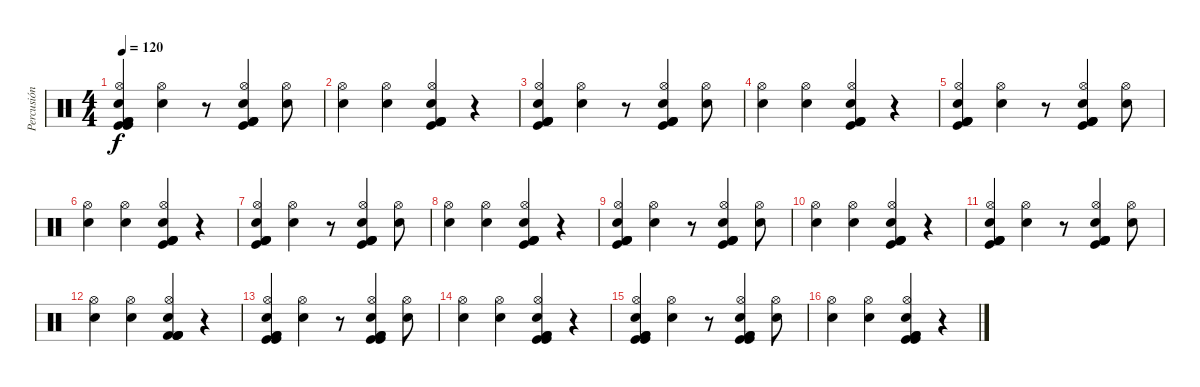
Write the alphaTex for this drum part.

\track ("Percusión" "Percusión") {instrument percussion}
\staff {score}
\articulation defaults
\ts (4 4)
\tempo 120
\clef neutral
\ks c
("Kick (hit) 2" "Hi-Hat (open)" "Snare (hit) 2" "Kick (hit)" "Kick (hit)" "Kick (hit) 2").4{dy f} ("Hi-Hat (open)" "Snare (hit) 2").4 r.8 ("Kick (hit) 2" "Hi-Hat (open)" "Snare (hit) 2" "Kick (hit) 2" "Kick (hit) 2" "Kick (hit)").4 ("Hi-Hat (open)" "Snare (hit) 2").8 |
("Hi-Hat (open)" "Snare (hit) 2").4 ("Hi-Hat (open)" "Snare (hit) 2").4 ("Kick (hit) 2" "Hi-Hat (open)" "Snare (hit) 2" "Kick (hit) 2" "Kick (hit) 2" "Kick (hit)").4 r.4 |
("Kick (hit) 2" "Hi-Hat (open)" "Snare (hit) 2" "Kick (hit) 2" "Kick (hit)" "Kick (hit) 2").4 ("Hi-Hat (open)" "Snare (hit) 2").4 r.8 ("Kick (hit) 2" "Hi-Hat (open)" "Snare (hit) 2" "Kick (hit) 2" "Kick (hit) 2" "Kick (hit)").4 ("Hi-Hat (open)" "Snare (hit) 2").8 |
("Hi-Hat (open)" "Snare (hit) 2").4 ("Hi-Hat (open)" "Snare (hit) 2").4 ("Kick (hit) 2" "Hi-Hat (open)" "Snare (hit) 2" "Kick (hit) 2" "Kick (hit)" "Kick (hit) 2").4 r.4 |
("Kick (hit) 2" "Hi-Hat (open)" "Snare (hit) 2" "Kick (hit) 2" "Kick (hit) 2" "Kick (hit)").4 ("Hi-Hat (open)" "Snare (hit) 2").4 r.8 ("Kick (hit) 2" "Hi-Hat (open)" "Snare (hit) 2" "Kick (hit) 2" "Kick (hit)" "Kick (hit) 2").4 ("Hi-Hat (open)" "Snare (hit) 2").8 |
("Hi-Hat (open)" "Snare (hit) 2").4 ("Hi-Hat (open)" "Snare (hit) 2").4 ("Kick (hit) 2" "Hi-Hat (open)" "Snare (hit) 2" "Kick (hit) 2" "Kick (hit)" "Kick (hit) 2").4 r.4 |
("Kick (hit) 2" "Hi-Hat (open)" "Snare (hit) 2" "Kick (hit) 2" "Kick (hit)" "Kick (hit) 2").4 ("Hi-Hat (open)" "Snare (hit) 2").4 r.8 ("Kick (hit) 2" "Hi-Hat (open)" "Snare (hit) 2" "Kick (hit) 2" "Kick (hit) 2" "Kick (hit)").4 ("Hi-Hat (open)" "Snare (hit) 2").8 |
("Hi-Hat (open)" "Snare (hit) 2").4 ("Hi-Hat (open)" "Snare (hit) 2").4 ("Kick (hit) 2" "Hi-Hat (open)" "Snare (hit) 2" "Kick (hit) 2" "Kick (hit)" "Kick (hit) 2").4 r.4 |
("Kick (hit) 2" "Hi-Hat (open)" "Snare (hit) 2" "Kick (hit) 2" "Kick (hit)" "Kick (hit) 2").4 ("Hi-Hat (open)" "Snare (hit) 2").4 r.8 ("Kick (hit) 2" "Hi-Hat (open)" "Snare (hit) 2" "Kick (hit) 2" "Kick (hit)" "Kick (hit) 2").4 ("Hi-Hat (open)" "Snare (hit) 2").8 |
("Hi-Hat (open)" "Snare (hit) 2").4 ("Hi-Hat (open)" "Snare (hit) 2").4 ("Kick (hit) 2" "Hi-Hat (open)" "Snare (hit) 2" "Kick (hit) 2" "Kick (hit)" "Kick (hit) 2").4 r.4 |
("Kick (hit) 2" "Hi-Hat (open)" "Snare (hit) 2" "Kick (hit) 2" "Kick (hit)" "Kick (hit) 2").4 ("Hi-Hat (open)" "Snare (hit) 2").4 r.8 ("Kick (hit) 2" "Hi-Hat (open)" "Snare (hit) 2" "Kick (hit) 2" "Kick (hit)" "Kick (hit) 2").4 ("Hi-Hat (open)" "Snare (hit) 2").8 |
("Hi-Hat (open)" "Snare (hit) 2").4 ("Hi-Hat (open)" "Snare (hit) 2").4 ("Kick (hit) 2" "Hi-Hat (open)" "Snare (hit) 2" "Kick (hit) 2" "Kick (hit) 2" "Kick (hit) 2").4 r.4 |
("Kick (hit) 2" "Hi-Hat (open)" "Snare (hit) 2" "Kick (hit)" "Kick (hit)" "Kick (hit) 2").4 ("Hi-Hat (open)" "Snare (hit) 2").4 r.8 ("Kick (hit) 2" "Hi-Hat (open)" "Snare (hit) 2" "Kick (hit)" "Kick (hit)" "Kick (hit) 2").4 ("Hi-Hat (open)" "Snare (hit) 2").8 |
("Hi-Hat (open)" "Snare (hit) 2").4 ("Hi-Hat (open)" "Snare (hit) 2").4 ("Kick (hit) 2" "Hi-Hat (open)" "Snare (hit) 2" "Kick (hit)" "Kick (hit)" "Kick (hit) 2").4 r.4 |
("Kick (hit) 2" "Hi-Hat (open)" "Snare (hit) 2" "Kick (hit)" "Kick (hit)" "Kick (hit) 2").4 ("Hi-Hat (open)" "Snare (hit) 2").4 r.8 ("Kick (hit) 2" "Hi-Hat (open)" "Snare (hit) 2" "Kick (hit)" "Kick (hit)" "Kick (hit) 2").4 ("Hi-Hat (open)" "Snare (hit) 2").8 |
("Hi-Hat (open)" "Snare (hit) 2").4 ("Hi-Hat (open)" "Snare (hit) 2").4 ("Kick (hit) 2" "Hi-Hat (open)" "Snare (hit) 2" "Kick (hit)" "Kick (hit)" "Kick (hit) 2").4 r.4
